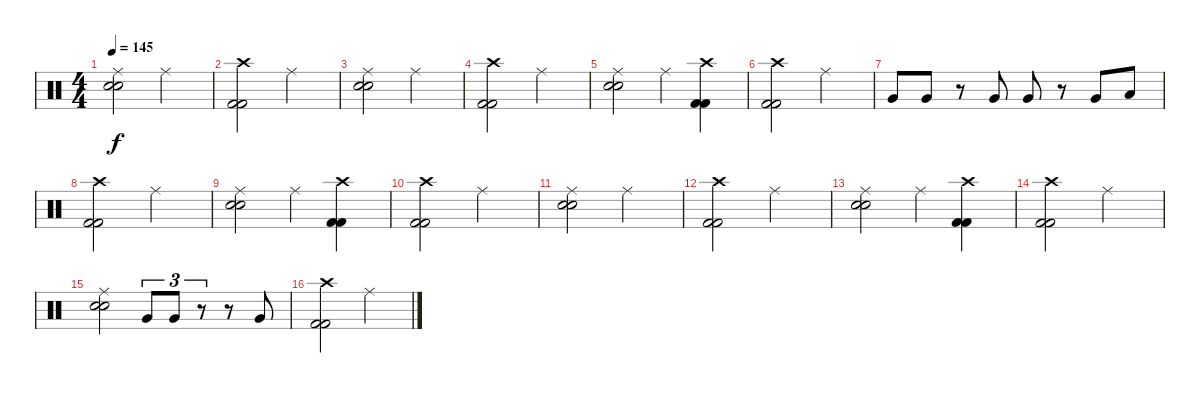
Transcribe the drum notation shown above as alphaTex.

\track "" {instrument percussion}
\staff {score}
\articulation defaults
\ts (4 4)
\tempo 145
\clef neutral
\ks c
("Ride (middle)" "Snare (hit) 2" "Snare (hit) 2").2{dy f} "Ride (middle)".2 |
("Crash high (hit)" "Kick (hit) 2" "Kick (hit) 2").2 "Ride (middle)".2 |
("Ride (middle)" "Snare (hit) 2" "Snare (hit) 2").2 "Ride (middle)".2 |
("Crash high (hit)" "Kick (hit) 2" "Kick (hit) 2").2 "Ride (middle)".2 |
("Ride (middle)" "Snare (hit) 2" "Snare (hit) 2").2 "Ride (middle)".4 ("Crash high (hit)" "Kick (hit) 2" "Kick (hit) 2").4 |
("Crash high (hit)" "Kick (hit) 2" "Kick (hit) 2").2 "Ride (middle)".2 |
"Very Low Tom (hit)".8 "Very Low Tom (hit)".8 r.8 "Very Low Tom (hit)".8 "Very Low Tom (hit)".8 r.8 "Very Low Tom (hit)".8 "Low Floor Tom (hit)".8 |
("Crash high (hit)" "Kick (hit) 2" "Kick (hit) 2").2 "Ride (middle)".2 |
("Ride (middle)" "Snare (hit) 2" "Snare (hit) 2").2 "Ride (middle)".4 ("Crash high (hit)" "Kick (hit) 2" "Kick (hit) 2").4 |
("Crash high (hit)" "Kick (hit) 2" "Kick (hit) 2").2 "Ride (middle)".2 |
("Ride (middle)" "Snare (hit) 2" "Snare (hit) 2").2 "Ride (middle)".2 |
("Crash high (hit)" "Kick (hit) 2" "Kick (hit) 2").2 "Ride (middle)".2 |
("Ride (middle)" "Snare (hit) 2" "Snare (hit) 2").2 "Ride (middle)".4 ("Crash high (hit)" "Kick (hit) 2" "Kick (hit) 2").4 |
("Crash high (hit)" "Kick (hit) 2" "Kick (hit) 2").2 "Ride (middle)".2 |
("Ride (middle)" "Snare (hit) 2" "Snare (hit) 2").2 "Very Low Tom (hit)".8{tu (3 2)} "Very Low Tom (hit)".8{tu (3 2)} r.8{tu (3 2)} r.8 "Very Low Tom (hit)".8 |
("Crash high (hit)" "Kick (hit) 2" "Kick (hit) 2").2 "Ride (middle)".2
